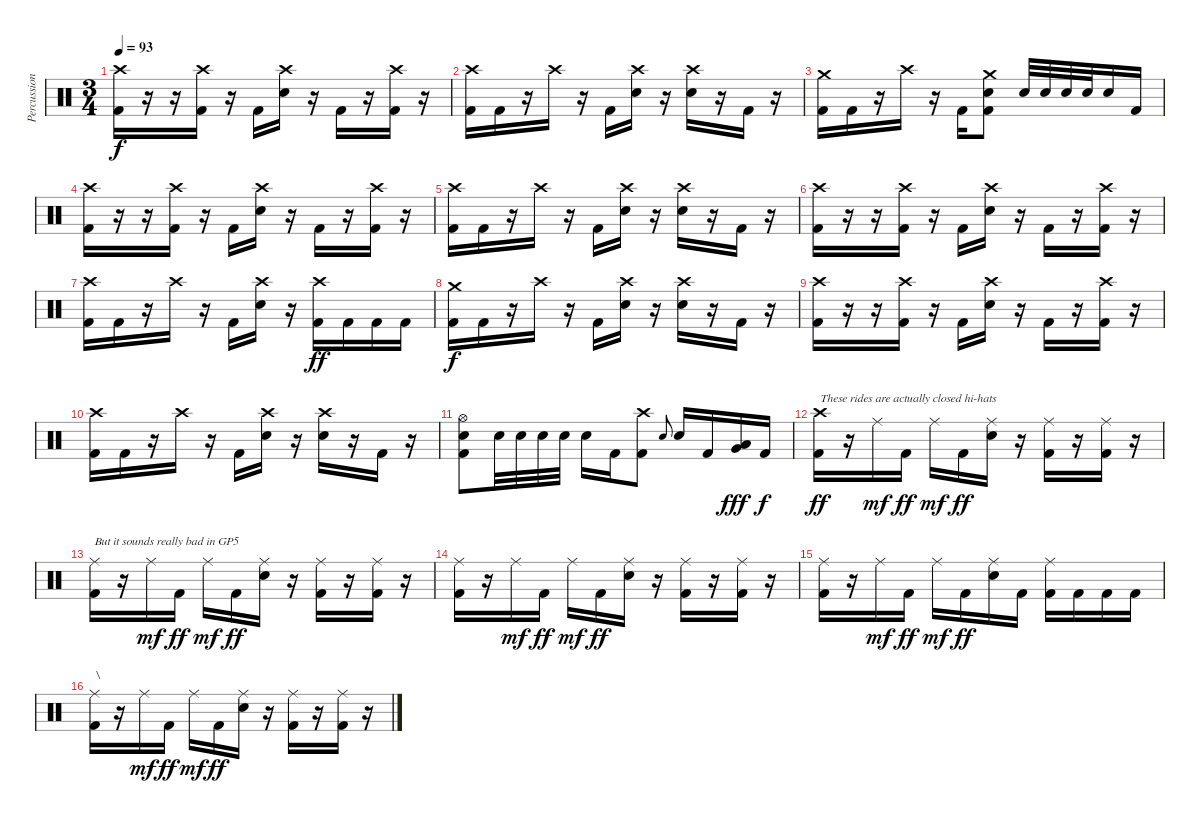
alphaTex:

\track ("Percussion" "Percussion") {instrument percussion}
\staff {score}
\articulation defaults
\ts (3 4)
\tempo 93
\clef neutral
\ks c
("Crash high (hit)" "Kick (hit) 2").16{dy f} r.16 r.16 ("Crash high (hit)" "Kick (hit) 2").16 r.16 "Kick (hit) 2".16 ("Crash high (hit)" "Electric Snare (hit)").16 r.16 "Kick (hit) 2".16 r.16 ("Crash high (hit)" "Kick (hit) 2").16 r.16 |
("Crash high (hit)" "Kick (hit) 2").16 "Kick (hit) 2".16 r.16 "Crash high (hit)".16 r.16 "Kick (hit) 2".16 ("Crash high (hit)" "Electric Snare (hit)").16 r.16 ("Crash high (hit)" "Electric Snare (hit)").16 r.16 "Kick (hit) 2".16 r.16 |
("Crash medium (hit)" "Kick (hit) 2").16 "Kick (hit) 2".16 r.16 "Crash high (hit)".16 r.16 "Kick (hit) 2".16 ("Crash medium (hit)" "Electric Snare (hit)" "Kick (hit) 2").8 "Electric Snare (hit)".32 "Electric Snare (hit)".32 "Electric Snare (hit)".32 "Electric Snare (hit)".32 "Electric Snare (hit)".16 "Kick (hit) 2".16 |
("Crash high (hit)" "Kick (hit) 2").16 r.16 r.16 ("Crash high (hit)" "Kick (hit) 2").16 r.16 "Kick (hit) 2".16 ("Crash high (hit)" "Electric Snare (hit)").16 r.16 "Kick (hit) 2".16 r.16 ("Crash high (hit)" "Kick (hit) 2").16 r.16 |
("Crash high (hit)" "Kick (hit) 2").16 "Kick (hit) 2".16 r.16 "Crash high (hit)".16 r.16 "Kick (hit) 2".16 ("Crash high (hit)" "Electric Snare (hit)").16 r.16 ("Crash high (hit)" "Electric Snare (hit)").16 r.16 "Kick (hit) 2".16 r.16 |
("Crash high (hit)" "Kick (hit) 2").16 r.16 r.16 ("Crash high (hit)" "Kick (hit) 2").16 r.16 "Kick (hit) 2".16 ("Crash high (hit)" "Electric Snare (hit)").16 r.16 "Kick (hit) 2".16 r.16 ("Crash high (hit)" "Kick (hit) 2").16 r.16 |
("Crash high (hit)" "Kick (hit) 2").16 "Kick (hit) 2".16 r.16 "Crash high (hit)".16 r.16 "Kick (hit) 2".16 ("Crash high (hit)" "Electric Snare (hit)").16 r.16 ("Crash high (hit)" "Kick (hit) 2").16{dy ff} "Kick (hit) 2".16 "Kick (hit) 2".16 "Kick (hit) 2".16 |
("Crash medium (hit)" "Kick (hit) 2").16{dy f} "Kick (hit) 2".16 r.16 "Crash high (hit)".16 r.16 "Kick (hit) 2".16 ("Crash high (hit)" "Electric Snare (hit)").16 r.16 ("Crash high (hit)" "Electric Snare (hit)").16 r.16 "Kick (hit) 2".16 r.16 |
("Crash high (hit)" "Kick (hit) 2").16 r.16 r.16 ("Crash high (hit)" "Kick (hit) 2").16 r.16 "Kick (hit) 2".16 ("Crash high (hit)" "Electric Snare (hit)").16 r.16 "Kick (hit) 2".16 r.16 ("Crash high (hit)" "Kick (hit) 2").16 r.16 |
("Crash high (hit)" "Kick (hit) 2").16 "Kick (hit) 2".16 r.16 "Crash high (hit)".16 r.16 "Kick (hit) 2".16 ("Crash high (hit)" "Electric Snare (hit)").16 r.16 ("Crash high (hit)" "Electric Snare (hit)").16 r.16 "Kick (hit) 2".16 r.16 |
("Hi-Hat (open)" "Electric Snare (hit)" "Kick (hit) 2").8 "Electric Snare (hit)".32 "Electric Snare (hit)".32 "Electric Snare (hit)".32 "Electric Snare (hit)".32 "Electric Snare (hit)".16 "Kick (hit) 2".16 ("Crash high (hit)" "Kick (hit) 2").8 "Electric Snare (hit)".8{gr onbeat} "Electric Snare (hit)".16 "Kick (hit) 2".16 ("Very Low Tom (hit)" "Low Floor Tom (hit)").16{dy fff} "Kick (hit) 2".16{dy f} |
("Crash high (hit)" "Kick (hit) 2").16{txt "These rides are actually closed hi-hats" dy ff} r.16 "Ride (middle)".16{dy mf} "Kick (hit) 2".16{dy ff} "Ride (middle)".16{dy mf} "Kick (hit) 2".16{dy ff} ("Ride (middle)" "Electric Snare (hit)").16 r.16 ("Ride (middle)" "Kick (hit) 2").16 r.16 ("Ride (middle)" "Kick (hit) 2").16 r.16 |
("Ride (middle)" "Kick (hit) 2").16{txt "But it sounds really bad in GP5"} r.16 "Ride (middle)".16{dy mf} "Kick (hit) 2".16{dy ff} "Ride (middle)".16{dy mf} "Kick (hit) 2".16{dy ff} ("Ride (middle)" "Electric Snare (hit)").16 r.16 ("Ride (middle)" "Kick (hit) 2").16 r.16 ("Ride (middle)" "Kick (hit) 2").16 r.16 |
("Ride (middle)" "Kick (hit) 2").16 r.16 "Ride (middle)".16{dy mf} "Kick (hit) 2".16{dy ff} "Ride (middle)".16{dy mf} "Kick (hit) 2".16{dy ff} ("Ride (middle)" "Electric Snare (hit)").16 r.16 ("Ride (middle)" "Kick (hit) 2").16 r.16 ("Ride (middle)" "Kick (hit) 2").16 r.16 |
("Ride (middle)" "Kick (hit) 2").16 r.16 "Ride (middle)".16{dy mf} "Kick (hit) 2".16{dy ff} "Ride (middle)".16{dy mf} "Kick (hit) 2".16{dy ff} ("Ride (middle)" "Electric Snare (hit)").16 "Kick (hit) 2".16 ("Ride (middle)" "Kick (hit) 2").16 "Kick (hit) 2".16 "Kick (hit) 2".16 "Kick (hit) 2".16 |
("Ride (middle)" "Kick (hit) 2").16{txt "\\"} r.16 "Ride (middle)".16{dy mf} "Kick (hit) 2".16{dy ff} "Ride (middle)".16{dy mf} "Kick (hit) 2".16{dy ff} ("Ride (middle)" "Electric Snare (hit)").16 r.16 ("Ride (middle)" "Kick (hit) 2").16 r.16 ("Ride (middle)" "Kick (hit) 2").16 r.16
